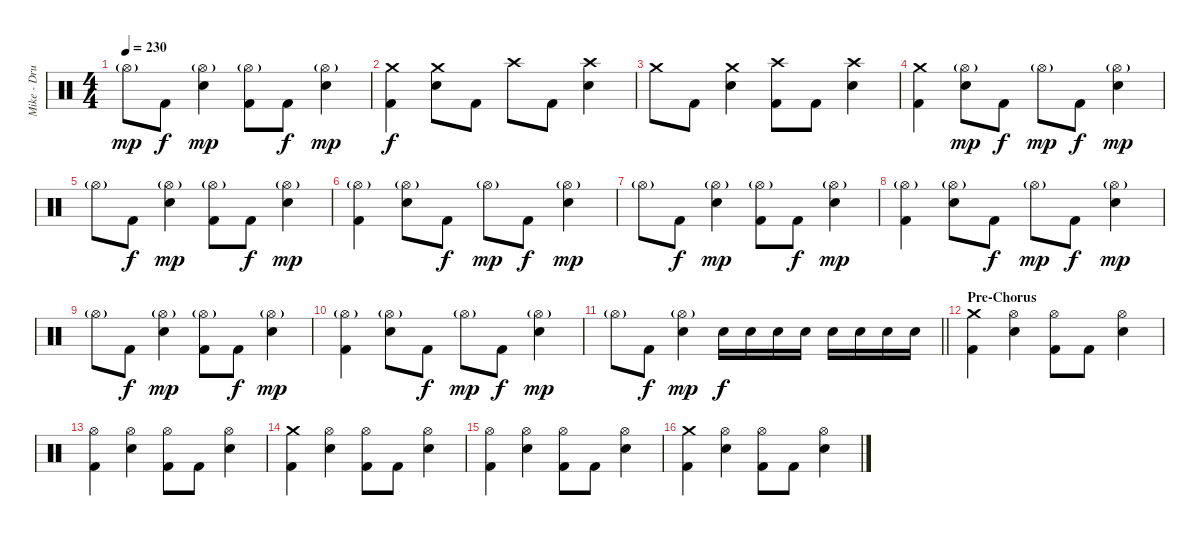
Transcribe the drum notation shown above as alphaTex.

\track ("Mike - Drums" "Mike - Dru") {instrument percussion}
\staff {score}
\articulation defaults
\ts (4 4)
\tempo 230
\clef neutral
\ks c "Hi-Hat (open)"{g}.8{dy mp} "Kick (hit) 2".8{dy f}
("Hi-Hat (open)"{g} "Electric Snare (hit)").4{dy mp} ("Hi-Hat (open)"{g} "Kick (hit) 2").8 "Kick (hit) 2".8{dy f} ("Hi-Hat (open)"{g} "Electric Snare (hit)").4{dy mp} |
("Crash medium (hit)" "Kick (hit) 2").4{dy f} ("Crash medium (hit)" "Electric Snare (hit)").8 "Kick (hit) 2".8 "Crash high (hit)".8 "Kick (hit) 2".8 ("Crash high (hit)" "Electric Snare (hit)").4 |
"Crash medium (hit)".8 "Kick (hit) 2".8 ("Crash medium (hit)" "Electric Snare (hit)").4 ("Crash high (hit)" "Kick (hit) 2").8 "Kick (hit) 2".8 ("Crash high (hit)" "Electric Snare (hit)").4 |
("Crash medium (hit)" "Kick (hit) 2").4 ("Hi-Hat (open)"{g} "Electric Snare (hit)").8{dy mp} "Kick (hit) 2".8{dy f} "Hi-Hat (open)"{g}.8{dy mp} "Kick (hit) 2".8{dy f} ("Hi-Hat (open)"{g} "Electric Snare (hit)").4{dy mp} |
"Hi-Hat (open)"{g}.8 "Kick (hit) 2".8{dy f} ("Hi-Hat (open)"{g} "Electric Snare (hit)").4{dy mp} ("Hi-Hat (open)"{g} "Kick (hit) 2").8 "Kick (hit) 2".8{dy f} ("Hi-Hat (open)"{g} "Electric Snare (hit)").4{dy mp} |
("Hi-Hat (open)"{g} "Kick (hit) 2").4 ("Hi-Hat (open)"{g} "Electric Snare (hit)").8 "Kick (hit) 2".8{dy f} "Hi-Hat (open)"{g}.8{dy mp} "Kick (hit) 2".8{dy f} ("Hi-Hat (open)"{g} "Electric Snare (hit)").4{dy mp} |
"Hi-Hat (open)"{g}.8 "Kick (hit) 2".8{dy f} ("Hi-Hat (open)"{g} "Electric Snare (hit)").4{dy mp} ("Hi-Hat (open)"{g} "Kick (hit) 2").8 "Kick (hit) 2".8{dy f} ("Hi-Hat (open)"{g} "Electric Snare (hit)").4{dy mp} |
("Hi-Hat (open)"{g} "Kick (hit) 2").4 ("Hi-Hat (open)"{g} "Electric Snare (hit)").8 "Kick (hit) 2".8{dy f} "Hi-Hat (open)"{g}.8{dy mp} "Kick (hit) 2".8{dy f} ("Hi-Hat (open)"{g} "Electric Snare (hit)").4{dy mp} |
"Hi-Hat (open)"{g}.8 "Kick (hit) 2".8{dy f} ("Hi-Hat (open)"{g} "Electric Snare (hit)").4{dy mp} ("Hi-Hat (open)"{g} "Kick (hit) 2").8 "Kick (hit) 2".8{dy f} ("Hi-Hat (open)"{g} "Electric Snare (hit)").4{dy mp} |
("Hi-Hat (open)"{g} "Kick (hit) 2").4 ("Hi-Hat (open)"{g} "Electric Snare (hit)").8 "Kick (hit) 2".8{dy f} "Hi-Hat (open)"{g}.8{dy mp} "Kick (hit) 2".8{dy f} ("Hi-Hat (open)"{g} "Electric Snare (hit)").4{dy mp} |
\barLineRight lightlight "Hi-Hat (open)"{g}.8 "Kick (hit) 2".8{dy f}
("Hi-Hat (open)"{g} "Electric Snare (hit)").4{dy mp} "Electric Snare (hit)".16{dy f} "Electric Snare (hit)".16 "Electric Snare (hit)".16 "Electric Snare (hit)".16 "Electric Snare (hit)".16 "Electric Snare (hit)".16 "Electric Snare (hit)".16 "Electric Snare (hit)".16 |
\section ("" "Pre-Chorus")
("Crash medium (hit)" "Kick (hit) 2").4 ("Hi-Hat (open)" "Electric Snare (hit)").4 ("Hi-Hat (open)" "Kick (hit) 2").8 "Kick (hit) 2".8 ("Hi-Hat (open)" "Electric Snare (hit)").4 |
("Hi-Hat (open)" "Kick (hit) 2").4 ("Hi-Hat (open)" "Electric Snare (hit)").4 ("Hi-Hat (open)" "Kick (hit) 2").8 "Kick (hit) 2".8 ("Hi-Hat (open)" "Electric Snare (hit)").4 |
("Crash medium (hit)" "Kick (hit) 2").4 ("Hi-Hat (open)" "Electric Snare (hit)").4 ("Hi-Hat (open)" "Kick (hit) 2").8 "Kick (hit) 2".8 ("Hi-Hat (open)" "Electric Snare (hit)").4 |
("Hi-Hat (open)" "Kick (hit) 2").4 ("Hi-Hat (open)" "Electric Snare (hit)").4 ("Hi-Hat (open)" "Kick (hit) 2").8 "Kick (hit) 2".8 ("Hi-Hat (open)" "Electric Snare (hit)").4 |
("Crash medium (hit)" "Kick (hit) 2").4 ("Hi-Hat (open)" "Electric Snare (hit)").4 ("Hi-Hat (open)" "Kick (hit) 2").8 "Kick (hit) 2".8 ("Hi-Hat (open)" "Electric Snare (hit)").4
